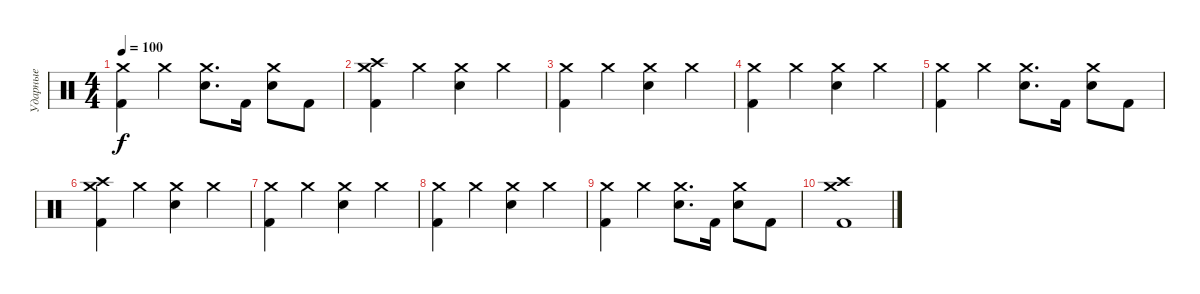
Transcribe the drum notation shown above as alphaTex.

\track ("Ударные" "Ударные") {instrument percussion}
\staff {score}
\articulation defaults
\ts (4 4)
\tempo 100
\clef neutral
\ks c
("Crash medium (hit)" "Kick (hit) 2").4{dy f} "Crash medium (hit)".4 ("Crash medium (hit)" "Snare (hit) 2").8{d} "Kick (hit) 2".16 ("Crash medium (hit)" "Snare (hit) 2").8 "Kick (hit) 2".8 |
("Crash medium (hit)" "Kick (hit) 2" "Crash high (hit)").4 "Crash medium (hit)".4 ("Crash medium (hit)" "Snare (hit) 2").4 "Crash medium (hit)".4 |
("Crash medium (hit)" "Kick (hit) 2").4 "Crash medium (hit)".4 ("Crash medium (hit)" "Snare (hit) 2").4 "Crash medium (hit)".4 |
("Crash medium (hit)" "Kick (hit) 2").4 "Crash medium (hit)".4 ("Crash medium (hit)" "Snare (hit) 2").4 "Crash medium (hit)".4 |
("Crash medium (hit)" "Kick (hit) 2").4 "Crash medium (hit)".4 ("Crash medium (hit)" "Snare (hit) 2").8{d} "Kick (hit) 2".16 ("Crash medium (hit)" "Snare (hit) 2").8 "Kick (hit) 2".8 |
("Crash medium (hit)" "Kick (hit) 2" "Crash high (hit)").4 "Crash medium (hit)".4 ("Crash medium (hit)" "Snare (hit) 2").4 "Crash medium (hit)".4 |
("Crash medium (hit)" "Kick (hit) 2").4 "Crash medium (hit)".4 ("Crash medium (hit)" "Snare (hit) 2").4 "Crash medium (hit)".4 |
("Crash medium (hit)" "Kick (hit) 2").4 "Crash medium (hit)".4 ("Crash medium (hit)" "Snare (hit) 2").4 "Crash medium (hit)".4 |
("Crash medium (hit)" "Kick (hit) 2").4 "Crash medium (hit)".4 ("Crash medium (hit)" "Snare (hit) 2").8{d} "Kick (hit) 2".16 ("Crash medium (hit)" "Snare (hit) 2").8 "Kick (hit) 2".8 |
("Crash medium (hit)" "Kick (hit) 2" "Crash high (hit)").1
